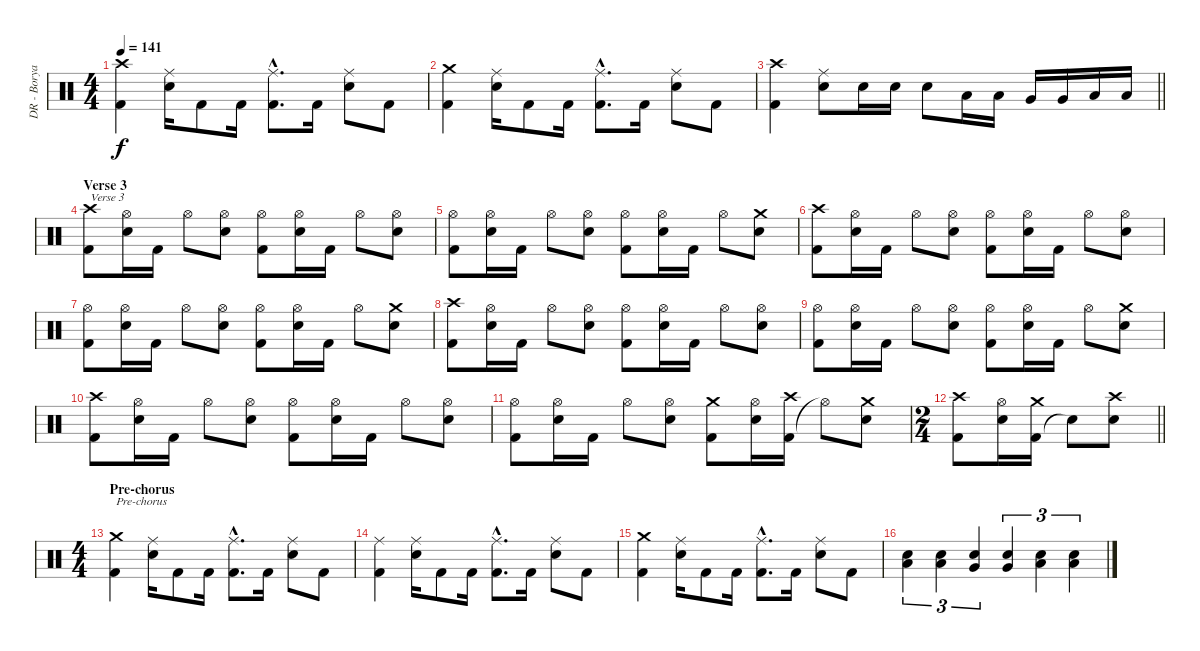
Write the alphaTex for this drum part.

\track ("DR - Borya" "DR - Borya") {instrument percussion}
\staff {score}
\articulation defaults
\ts (4 4)
\tempo 141
\clef neutral
\ks c
("Kick (hit) 2" "Crash high (hit)").4{dy f} ("Electric Snare (hit)" "Ride (middle)").16 "Kick (hit) 2".8 "Kick (hit) 2".16 ("Kick (hit) 2"{hac} "Ride (middle)"{hac}).8{d} "Kick (hit) 2".16 ("Electric Snare (hit)" "Ride (middle)").8 "Kick (hit) 2".8 |
("Kick (hit) 2" "Crash medium (hit)").4 ("Electric Snare (hit)" "Ride (middle)").16 "Kick (hit) 2".8 "Kick (hit) 2".16 ("Kick (hit) 2"{hac} "Ride (middle)"{hac}).8{d} "Kick (hit) 2".16 ("Electric Snare (hit)" "Ride (middle)").8 "Kick (hit) 2".8 |
\barLineRight lightlight
("Kick (hit) 2" "Crash high (hit)").4 ("Electric Snare (hit)" "Ride (middle)").8 "Electric Snare (hit)".16 "Electric Snare (hit)".16 "Electric Snare (hit)".8 "Low Tom (hit)".16 "Low Tom (hit)".16 "Very Low Tom (hit)".16 "Very Low Tom (hit)".16 "Low Floor Tom (hit)".16 "Low Floor Tom (hit)".16 |
\section ("" "Verse 3")
("Kick (hit) 2" "Crash high (hit)").8{txt "Verse 3"} ("Electric Snare (hit)" "Hi-Hat (open)").16 "Kick (hit) 2".16 "Hi-Hat (open)".8 ("Electric Snare (hit)" "Hi-Hat (open)").8 ("Kick (hit) 2" "Hi-Hat (open)").8 ("Electric Snare (hit)" "Hi-Hat (open)").16 "Kick (hit) 2".16 "Hi-Hat (open)".8 ("Electric Snare (hit)" "Hi-Hat (open)").8 |
("Kick (hit) 2" "Hi-Hat (open)").8 ("Electric Snare (hit)" "Hi-Hat (open)").16 "Kick (hit) 2".16 "Hi-Hat (open)".8 ("Electric Snare (hit)" "Hi-Hat (open)").8 ("Kick (hit) 2" "Hi-Hat (open)").8 ("Electric Snare (hit)" "Hi-Hat (open)").16 "Kick (hit) 2".16 "Hi-Hat (open)".8 ("Electric Snare (hit)" "Crash medium (hit)").8 |
("Kick (hit) 2" "Crash high (hit)").8 ("Electric Snare (hit)" "Hi-Hat (open)").16 "Kick (hit) 2".16 "Hi-Hat (open)".8 ("Electric Snare (hit)" "Hi-Hat (open)").8 ("Kick (hit) 2" "Hi-Hat (open)").8 ("Electric Snare (hit)" "Hi-Hat (open)").16 "Kick (hit) 2".16 "Hi-Hat (open)".8 ("Electric Snare (hit)" "Hi-Hat (open)").8 |
("Kick (hit) 2" "Hi-Hat (open)").8 ("Electric Snare (hit)" "Hi-Hat (open)").16 "Kick (hit) 2".16 "Hi-Hat (open)".8 ("Electric Snare (hit)" "Hi-Hat (open)").8 ("Kick (hit) 2" "Hi-Hat (open)").8 ("Electric Snare (hit)" "Hi-Hat (open)").16 "Kick (hit) 2".16 "Hi-Hat (open)".8 ("Electric Snare (hit)" "Crash medium (hit)").8 |
("Kick (hit) 2" "Crash high (hit)").8 ("Electric Snare (hit)" "Hi-Hat (open)").16 "Kick (hit) 2".16 "Hi-Hat (open)".8 ("Electric Snare (hit)" "Hi-Hat (open)").8 ("Kick (hit) 2" "Hi-Hat (open)").8 ("Electric Snare (hit)" "Hi-Hat (open)").16 "Kick (hit) 2".16 "Hi-Hat (open)".8 ("Electric Snare (hit)" "Hi-Hat (open)").8 |
("Kick (hit) 2" "Hi-Hat (open)").8 ("Electric Snare (hit)" "Hi-Hat (open)").16 "Kick (hit) 2".16 "Hi-Hat (open)".8 ("Electric Snare (hit)" "Hi-Hat (open)").8 ("Kick (hit) 2" "Hi-Hat (open)").8 ("Electric Snare (hit)" "Hi-Hat (open)").16 "Kick (hit) 2".16 "Hi-Hat (open)".8 ("Electric Snare (hit)" "Crash medium (hit)").8 |
("Kick (hit) 2" "Crash high (hit)").8 ("Electric Snare (hit)" "Hi-Hat (open)").16 "Kick (hit) 2".16 "Hi-Hat (open)".8 ("Electric Snare (hit)" "Hi-Hat (open)").8 ("Kick (hit) 2" "Hi-Hat (open)").8 ("Electric Snare (hit)" "Hi-Hat (open)").16 "Kick (hit) 2".16 "Hi-Hat (open)".8 ("Electric Snare (hit)" "Hi-Hat (open)").8 |
("Kick (hit) 2" "Hi-Hat (open)").8 ("Electric Snare (hit)" "Hi-Hat (open)").16 "Kick (hit) 2".16 "Hi-Hat (open)".8 ("Electric Snare (hit)" "Hi-Hat (open)").8 ("Kick (hit) 2" "Crash medium (hit)").8 ("Electric Snare (hit)" "Hi-Hat (open)").16 ("Kick (hit) 2" "Crash high (hit)").16 "Hi-Hat (open)"{t}.8 ("Electric Snare (hit)" "Crash medium (hit)").8 |
\ts (2 4)
\barLineRight lightlight
("Kick (hit) 2" "Crash high (hit)").8 ("Electric Snare (hit)" "Hi-Hat (open)").16 ("Kick (hit) 2" "Crash medium (hit)").16 "Snare (hit)"{t}.8 ("Electric Snare (hit)" "Crash high (hit)").8 |
\ts (4 4)
\section ("" "Pre-chorus")
("Kick (hit) 2" "Crash medium (hit)").4{txt "Pre-chorus"} ("Electric Snare (hit)" "Ride (middle)").16 "Kick (hit) 2".8 "Kick (hit) 2".16 ("Kick (hit) 2"{hac} "Ride (middle)"{hac}).8{d} "Kick (hit) 2".16 ("Electric Snare (hit)" "Ride (middle)").8 "Kick (hit) 2".8 |
("Kick (hit) 2" "Ride (middle)").4 ("Electric Snare (hit)" "Ride (middle)").16 "Kick (hit) 2".8 "Kick (hit) 2".16 ("Kick (hit) 2"{hac} "Ride (middle)"{hac}).8{d} "Kick (hit) 2".16 ("Electric Snare (hit)" "Ride (middle)").8 "Kick (hit) 2".8 |
("Kick (hit) 2" "Crash medium (hit)").4 ("Electric Snare (hit)" "Ride (middle)").16 "Kick (hit) 2".8 "Kick (hit) 2".16 ("Kick (hit) 2"{hac} "Ride (middle)"{hac}).8{d} "Kick (hit) 2".16 ("Electric Snare (hit)" "Ride (middle)").8 "Kick (hit) 2".8 |
("Electric Snare (hit)" "Low Tom (hit)").4{tu (3 2)} ("Electric Snare (hit)" "Low Tom (hit)").4{tu (3 2)} ("Electric Snare (hit)" "Very Low Tom (hit)").4{tu (3 2)} ("Electric Snare (hit)" "Very Low Tom (hit)").4{tu (3 2)} ("Electric Snare (hit)" "Low Floor Tom (hit)").4{tu (3 2)} ("Electric Snare (hit)" "Low Floor Tom (hit)").4{tu (3 2)}
